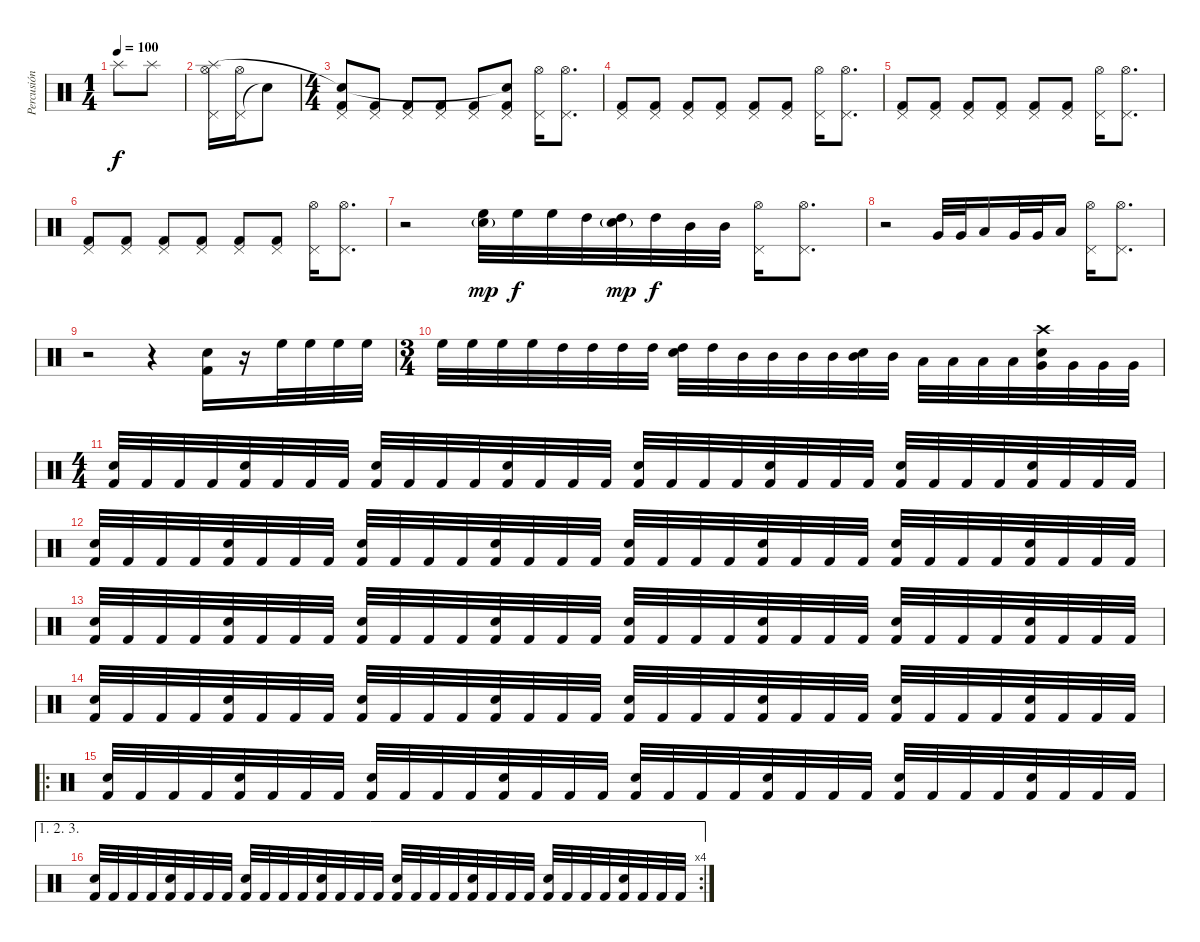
\track ("Percusión" "Percusión") {instrument percussion}
\staff {score}
\articulation defaults
\ts (1 4)
\tempo 100
\clef neutral
\ks c "Splash (hit)".8{dy f balance 11} "Splash (hit)".8
|
("Pedal Hi-Hat (hit)" "Hi-Hat (open)" "Splash (hit)").16 ("Pedal Hi-Hat (hit)" "Hi-Hat (open)").16 "Snare (hit)"{t}.8 |
\ts (4 4)
("Pedal Hi-Hat (hit)" "Kick (hit) 2" "Snare (hit)"{t}).8 ("Pedal Hi-Hat (hit)" "Kick (hit) 2").8 ("Pedal Hi-Hat (hit)" "Kick (hit) 2").8 ("Pedal Hi-Hat (hit)" "Kick (hit) 2").8 ("Pedal Hi-Hat (hit)" "Kick (hit) 2").8 ("Pedal Hi-Hat (hit)" "Kick (hit) 2" "Snare (hit)"{t}).8 ("Pedal Hi-Hat (hit)" "Hi-Hat (open)").16 ("Pedal Hi-Hat (hit)" "Hi-Hat (open)").8{d} |
("Pedal Hi-Hat (hit)" "Kick (hit) 2").8 ("Pedal Hi-Hat (hit)" "Kick (hit) 2").8 ("Pedal Hi-Hat (hit)" "Kick (hit) 2").8 ("Pedal Hi-Hat (hit)" "Kick (hit) 2").8 ("Pedal Hi-Hat (hit)" "Kick (hit) 2").8 ("Pedal Hi-Hat (hit)" "Kick (hit) 2").8 ("Pedal Hi-Hat (hit)" "Hi-Hat (open)").16 ("Pedal Hi-Hat (hit)" "Hi-Hat (open)").8{d} |
("Pedal Hi-Hat (hit)" "Kick (hit) 2").8 ("Pedal Hi-Hat (hit)" "Kick (hit) 2").8 ("Pedal Hi-Hat (hit)" "Kick (hit) 2").8 ("Pedal Hi-Hat (hit)" "Kick (hit) 2").8 ("Pedal Hi-Hat (hit)" "Kick (hit) 2").8 ("Pedal Hi-Hat (hit)" "Kick (hit) 2").8 ("Pedal Hi-Hat (hit)" "Hi-Hat (open)").16 ("Pedal Hi-Hat (hit)" "Hi-Hat (open)").8{d} |
("Pedal Hi-Hat (hit)" "Kick (hit) 2").8 ("Pedal Hi-Hat (hit)" "Kick (hit) 2").8 ("Pedal Hi-Hat (hit)" "Kick (hit) 2").8 ("Pedal Hi-Hat (hit)" "Kick (hit) 2").8 ("Pedal Hi-Hat (hit)" "Kick (hit) 2").8 ("Pedal Hi-Hat (hit)" "Kick (hit) 2").8 ("Pedal Hi-Hat (hit)" "Hi-Hat (open)").16 ("Pedal Hi-Hat (hit)" "Hi-Hat (open)").8{d} |
r.2 ("Snare (hit) 2"{g} "High Floor Tom (hit)").32{dy mp} "High Floor Tom (hit)".32{dy f} "High Floor Tom (hit)".32 "High Tom (hit)".32 ("Snare (hit) 2"{g} "High Tom (hit)").32{dy mp} "High Tom (hit)".32{dy f} "Mid Tom (hit)".32 "Mid Tom (hit)".32 ("Pedal Hi-Hat (hit)" "Hi-Hat (open)").16 ("Pedal Hi-Hat (hit)" "Hi-Hat (open)").8{d} |
r.2 "Very Low Tom (hit)".32 "Very Low Tom (hit)".32 "Low Floor Tom (hit)".16 "Very Low Tom (hit)".32 "Very Low Tom (hit)".32 "Low Floor Tom (hit)".16 ("Pedal Hi-Hat (hit)" "Hi-Hat (open)").16 ("Pedal Hi-Hat (hit)" "Hi-Hat (open)").8{d} |
r.2 r.4 ("Snare (hit) 2" "Kick (hit) 2").16 r.16 "High Floor Tom (hit)".32 "High Floor Tom (hit)".32 "High Floor Tom (hit)".32 "High Floor Tom (hit)".32 |
\ts (3 4)
"High Floor Tom (hit)".32 "High Floor Tom (hit)".32 "High Floor Tom (hit)".32 "High Floor Tom (hit)".32 "High Tom (hit)".32 "High Tom (hit)".32 "High Tom (hit)".32 "High Tom (hit)".32 ("Snare (hit) 2" "High Tom (hit)").32 "High Tom (hit)".32 "Mid Tom (hit)".32 "Mid Tom (hit)".32 "Mid Tom (hit)".32 "Mid Tom (hit)".32 ("Snare (hit) 2" "Mid Tom (hit)").32 "Mid Tom (hit)".32 "Low Tom (hit)".32 "Low Tom (hit)".32 "Low Tom (hit)".32 "Low Tom (hit)".32 ("Snare (hit) 2" "Crash high (hit)" "Very Low Tom (hit)").32 "Very Low Tom (hit)".32 "Very Low Tom (hit)".32 "Very Low Tom (hit)".32 |
\ts (4 4)
("Snare (hit) 2" "Kick (hit) 2").32 "Kick (hit) 2".32 "Kick (hit) 2".32 "Kick (hit) 2".32 ("Snare (hit) 2" "Kick (hit) 2").32 "Kick (hit) 2".32 "Kick (hit) 2".32 "Kick (hit) 2".32 ("Snare (hit) 2" "Kick (hit) 2").32 "Kick (hit) 2".32 "Kick (hit) 2".32 "Kick (hit) 2".32 ("Snare (hit) 2" "Kick (hit) 2").32 "Kick (hit) 2".32 "Kick (hit) 2".32 "Kick (hit) 2".32 ("Snare (hit) 2" "Kick (hit) 2").32 "Kick (hit) 2".32 "Kick (hit) 2".32 "Kick (hit) 2".32 ("Snare (hit) 2" "Kick (hit) 2").32 "Kick (hit) 2".32 "Kick (hit) 2".32 "Kick (hit) 2".32 ("Snare (hit) 2" "Kick (hit) 2").32 "Kick (hit) 2".32 "Kick (hit) 2".32 "Kick (hit) 2".32 ("Snare (hit) 2" "Kick (hit) 2").32 "Kick (hit) 2".32 "Kick (hit) 2".32 "Kick (hit) 2".32 |
("Snare (hit) 2" "Kick (hit) 2").32 "Kick (hit) 2".32 "Kick (hit) 2".32 "Kick (hit) 2".32 ("Snare (hit) 2" "Kick (hit) 2").32 "Kick (hit) 2".32 "Kick (hit) 2".32 "Kick (hit) 2".32 ("Snare (hit) 2" "Kick (hit) 2").32 "Kick (hit) 2".32 "Kick (hit) 2".32 "Kick (hit) 2".32 ("Snare (hit) 2" "Kick (hit) 2").32 "Kick (hit) 2".32 "Kick (hit) 2".32 "Kick (hit) 2".32 ("Snare (hit) 2" "Kick (hit) 2").32 "Kick (hit) 2".32 "Kick (hit) 2".32 "Kick (hit) 2".32 ("Snare (hit) 2" "Kick (hit) 2").32 "Kick (hit) 2".32 "Kick (hit) 2".32 "Kick (hit) 2".32 ("Snare (hit) 2" "Kick (hit) 2").32 "Kick (hit) 2".32 "Kick (hit) 2".32 "Kick (hit) 2".32 ("Snare (hit) 2" "Kick (hit) 2").32 "Kick (hit) 2".32 "Kick (hit) 2".32 "Kick (hit) 2".32 |
("Snare (hit) 2" "Kick (hit) 2").32 "Kick (hit) 2".32 "Kick (hit) 2".32 "Kick (hit) 2".32 ("Snare (hit) 2" "Kick (hit) 2").32 "Kick (hit) 2".32 "Kick (hit) 2".32 "Kick (hit) 2".32 ("Snare (hit) 2" "Kick (hit) 2").32 "Kick (hit) 2".32 "Kick (hit) 2".32 "Kick (hit) 2".32 ("Snare (hit) 2" "Kick (hit) 2").32 "Kick (hit) 2".32 "Kick (hit) 2".32 "Kick (hit) 2".32 ("Snare (hit) 2" "Kick (hit) 2").32 "Kick (hit) 2".32 "Kick (hit) 2".32 "Kick (hit) 2".32 ("Snare (hit) 2" "Kick (hit) 2").32 "Kick (hit) 2".32 "Kick (hit) 2".32 "Kick (hit) 2".32 ("Snare (hit) 2" "Kick (hit) 2").32 "Kick (hit) 2".32 "Kick (hit) 2".32 "Kick (hit) 2".32 ("Snare (hit) 2" "Kick (hit) 2").32 "Kick (hit) 2".32 "Kick (hit) 2".32 "Kick (hit) 2".32 |
("Snare (hit) 2" "Kick (hit) 2").32 "Kick (hit) 2".32 "Kick (hit) 2".32 "Kick (hit) 2".32 ("Snare (hit) 2" "Kick (hit) 2").32 "Kick (hit) 2".32 "Kick (hit) 2".32 "Kick (hit) 2".32 ("Snare (hit) 2" "Kick (hit) 2").32 "Kick (hit) 2".32 "Kick (hit) 2".32 "Kick (hit) 2".32 ("Snare (hit) 2" "Kick (hit) 2").32 "Kick (hit) 2".32 "Kick (hit) 2".32 "Kick (hit) 2".32 ("Snare (hit) 2" "Kick (hit) 2").32 "Kick (hit) 2".32 "Kick (hit) 2".32 "Kick (hit) 2".32 ("Snare (hit) 2" "Kick (hit) 2").32 "Kick (hit) 2".32 "Kick (hit) 2".32 "Kick (hit) 2".32 ("Snare (hit) 2" "Kick (hit) 2").32 "Kick (hit) 2".32 "Kick (hit) 2".32 "Kick (hit) 2".32 ("Snare (hit) 2" "Kick (hit) 2").32 "Kick (hit) 2".32 "Kick (hit) 2".32 "Kick (hit) 2".32 |
\ro
("Snare (hit) 2" "Kick (hit) 2").32 "Kick (hit) 2".32 "Kick (hit) 2".32 "Kick (hit) 2".32 ("Snare (hit) 2" "Kick (hit) 2").32 "Kick (hit) 2".32 "Kick (hit) 2".32 "Kick (hit) 2".32 ("Snare (hit) 2" "Kick (hit) 2").32 "Kick (hit) 2".32 "Kick (hit) 2".32 "Kick (hit) 2".32 ("Snare (hit) 2" "Kick (hit) 2").32 "Kick (hit) 2".32 "Kick (hit) 2".32 "Kick (hit) 2".32 ("Snare (hit) 2" "Kick (hit) 2").32 "Kick (hit) 2".32 "Kick (hit) 2".32 "Kick (hit) 2".32 ("Snare (hit) 2" "Kick (hit) 2").32 "Kick (hit) 2".32 "Kick (hit) 2".32 "Kick (hit) 2".32 ("Snare (hit) 2" "Kick (hit) 2").32 "Kick (hit) 2".32 "Kick (hit) 2".32 "Kick (hit) 2".32 ("Snare (hit) 2" "Kick (hit) 2").32 "Kick (hit) 2".32 "Kick (hit) 2".32 "Kick (hit) 2".32 |
\ae (1 2 3)
\rc 4
("Snare (hit) 2" "Kick (hit) 2").32 "Kick (hit) 2".32 "Kick (hit) 2".32 "Kick (hit) 2".32 ("Snare (hit) 2" "Kick (hit) 2").32 "Kick (hit) 2".32 "Kick (hit) 2".32 "Kick (hit) 2".32 ("Snare (hit) 2" "Kick (hit) 2").32 "Kick (hit) 2".32 "Kick (hit) 2".32 "Kick (hit) 2".32 ("Snare (hit) 2" "Kick (hit) 2").32 "Kick (hit) 2".32 "Kick (hit) 2".32 "Kick (hit) 2".32 ("Snare (hit) 2" "Kick (hit) 2").32 "Kick (hit) 2".32 "Kick (hit) 2".32 "Kick (hit) 2".32 ("Snare (hit) 2" "Kick (hit) 2").32 "Kick (hit) 2".32 "Kick (hit) 2".32 "Kick (hit) 2".32 ("Snare (hit) 2" "Kick (hit) 2").32 "Kick (hit) 2".32 "Kick (hit) 2".32 "Kick (hit) 2".32 ("Snare (hit) 2" "Kick (hit) 2").32 "Kick (hit) 2".32 "Kick (hit) 2".32 "Kick (hit) 2".32
